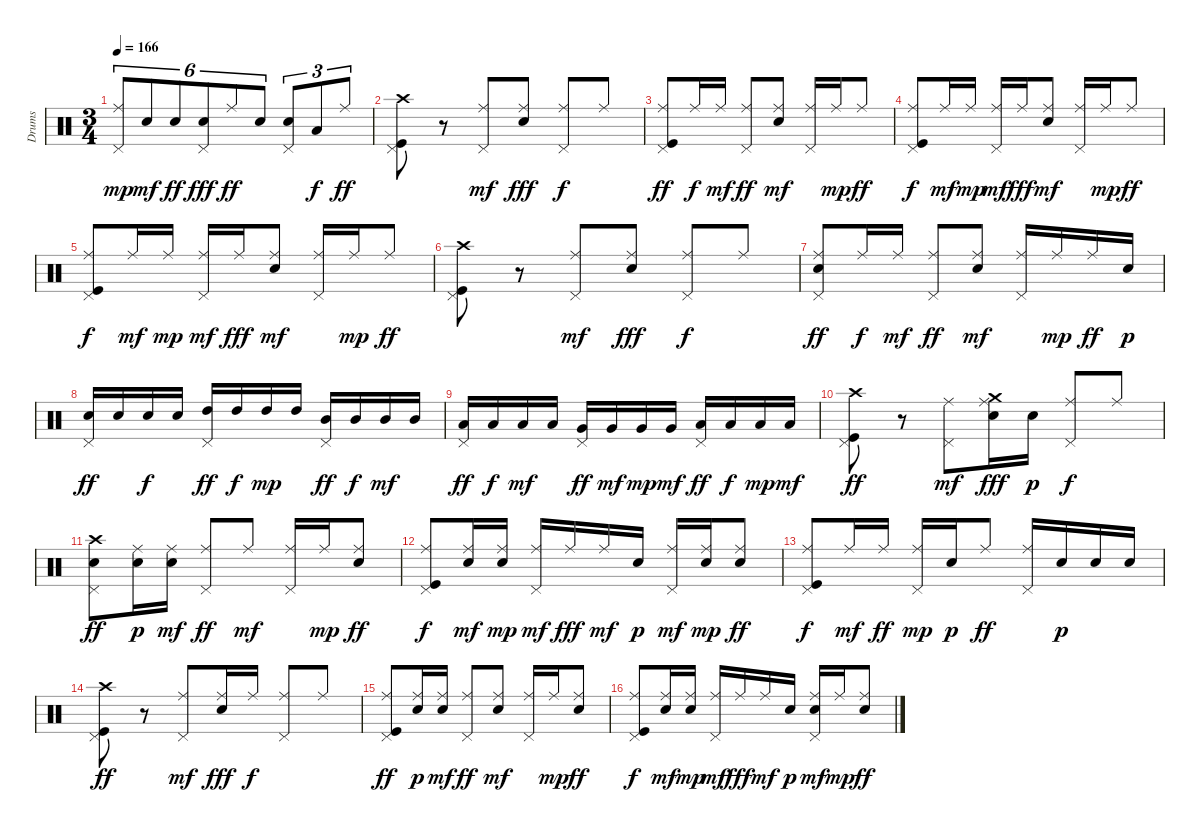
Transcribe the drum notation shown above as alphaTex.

\track ("Drums" "Drums") {instrument percussion}
\staff {score}
\articulation defaults
\ts (3 4)
\tempo 166
\clef neutral
\ks c
("Pedal Hi-Hat (hit)" "Ride (middle)").8{tu (6 4) dy mp} "Electric Snare (hit)".8{tu (6 4) dy mf} "Electric Snare (hit)".8{tu (6 4) dy ff} ("Electric Snare (hit)" "Pedal Hi-Hat (hit)").8{tu (6 4) dy fff} "Ride (middle)".8{tu (6 4) dy ff} "Electric Snare (hit)".8{tu (6 4)} ("Electric Snare (hit)" "Pedal Hi-Hat (hit)").8{tu (3 2)} "Low Tom (hit)".8{tu (3 2) dy f} "Ride (middle)".8{tu (3 2) dy ff} |
("Kick (hit)" "Pedal Hi-Hat (hit)" "Crash high (hit)").8 r.8 ("Pedal Hi-Hat (hit)" "Ride (middle)").8{dy mf} ("Electric Snare (hit)" "Ride (middle)").8{dy fff} ("Pedal Hi-Hat (hit)" "Ride (middle)").8{dy f} "Ride (middle)".8 |
("Kick (hit)" "Pedal Hi-Hat (hit)" "Ride (middle)").8{dy ff} "Ride (middle)".16{dy f} "Ride (middle)".16{dy mf} ("Pedal Hi-Hat (hit)" "Ride (middle)").8{dy ff} ("Electric Snare (hit)" "Ride (middle)").8{dy mf} ("Pedal Hi-Hat (hit)" "Ride (middle)").16 "Ride (middle)".16{dy mp} "Ride (middle)".8{dy ff} |
("Kick (hit)" "Pedal Hi-Hat (hit)" "Ride (middle)").8{dy f} "Ride (middle)".16{dy mf} "Ride (middle)".16{dy mp} ("Pedal Hi-Hat (hit)" "Ride (middle)").16{dy mf} "Ride (middle)".16{dy fff} ("Electric Snare (hit)" "Ride (middle)").8{dy mf} ("Pedal Hi-Hat (hit)" "Ride (middle)").16 "Ride (middle)".16{dy mp} "Ride (middle)".8{dy ff} |
("Kick (hit)" "Pedal Hi-Hat (hit)" "Ride (middle)").8{dy f} "Ride (middle)".16{dy mf} "Ride (middle)".16{dy mp} ("Pedal Hi-Hat (hit)" "Ride (middle)").16{dy mf} "Ride (middle)".16{dy fff} ("Electric Snare (hit)" "Ride (middle)").8{dy mf} ("Pedal Hi-Hat (hit)" "Ride (middle)").16 "Ride (middle)".16{dy mp} "Ride (middle)".8{dy ff} |
("Kick (hit)" "Pedal Hi-Hat (hit)" "Crash high (hit)").8 r.8 ("Pedal Hi-Hat (hit)" "Ride (middle)").8{dy mf} ("Electric Snare (hit)" "Ride (middle)").8{dy fff} ("Pedal Hi-Hat (hit)" "Ride (middle)").8{dy f} "Ride (middle)".8 |
("Electric Snare (hit)" "Pedal Hi-Hat (hit)" "Ride (middle)").8{dy ff} "Ride (middle)".16{dy f} "Ride (middle)".16{dy mf} ("Pedal Hi-Hat (hit)" "Ride (middle)").8{dy ff} ("Electric Snare (hit)" "Ride (middle)").8{dy mf} ("Pedal Hi-Hat (hit)" "Ride (middle)").16 "Ride (middle)".16{dy mp} "Ride (middle)".16{dy ff} "Snare (hit) 2".16{dy p} |
("Electric Snare (hit)" "Pedal Hi-Hat (hit)").16{dy ff} "Electric Snare (hit)".16 "Electric Snare (hit)".16{dy f} "Electric Snare (hit)".16 ("High Tom (hit)" "Pedal Hi-Hat (hit)").16{dy ff} "High Tom (hit)".16{dy f} "High Tom (hit)".16{dy mp} "High Tom (hit)".16 ("Mid Tom (hit)" "Pedal Hi-Hat (hit)").16{dy ff} "Mid Tom (hit)".16{dy f} "Mid Tom (hit)".16{dy mf} "Mid Tom (hit)".16 |
("Low Tom (hit)" "Pedal Hi-Hat (hit)").16{dy ff} "Low Tom (hit)".16{dy f} "Low Tom (hit)".16{dy mf} "Low Tom (hit)".16 ("Very Low Tom (hit)" "Pedal Hi-Hat (hit)").16{dy ff} "Very Low Tom (hit)".16{dy mf} "Very Low Tom (hit)".16{dy mp} "Very Low Tom (hit)".16{dy mf} ("Low Floor Tom (hit)" "Pedal Hi-Hat (hit)").16{dy ff} "Low Floor Tom (hit)".16{dy f} "Low Floor Tom (hit)".16{dy mp} "Low Floor Tom (hit)".16{dy mf} |
("Kick (hit)" "Pedal Hi-Hat (hit)" "Crash high (hit)").8{dy ff} r.8 ("Pedal Hi-Hat (hit)" "Ride (middle)").8{dy mf} ("Electric Snare (hit)" "Crash medium (hit)" "Ride (middle)").16{dy fff} "Snare (hit) 2".16{dy p} ("Pedal Hi-Hat (hit)" "Ride (middle)").8{dy f} "Ride (middle)".8 |
("Electric Snare (hit)" "Pedal Hi-Hat (hit)" "Crash high (hit)").8{dy ff} ("Snare (hit) 2" "Ride (middle)").16{dy p} ("Snare (hit) 2" "Ride (middle)").16{dy mf} ("Pedal Hi-Hat (hit)" "Ride (middle)").8{dy ff} "Ride (middle)".8{dy mf} ("Pedal Hi-Hat (hit)" "Ride (middle)").16 "Ride (middle)".16{dy mp} ("Snare (hit) 2" "Ride (middle)").8{dy ff} |
("Kick (hit)" "Pedal Hi-Hat (hit)" "Ride (middle)").8{dy f} ("Snare (hit) 2" "Ride (middle)").16{dy mf} ("Snare (hit) 2" "Ride (middle)").16{dy mp} ("Pedal Hi-Hat (hit)" "Ride (middle)").16{dy mf} "Ride (middle)".16{dy fff} "Ride (middle)".16{dy mf} "Snare (hit) 2".16{dy p} ("Pedal Hi-Hat (hit)" "Ride (middle)").16{dy mf} ("Snare (hit) 2" "Ride (middle)").16{dy mp} ("Snare (hit) 2" "Ride (middle)").8{dy ff} |
("Kick (hit)" "Pedal Hi-Hat (hit)" "Ride (middle)").8{dy f} "Ride (middle)".16{dy mf} "Ride (middle)".16{dy ff} ("Pedal Hi-Hat (hit)" "Ride (middle)").16{dy mp} "Snare (hit) 2".16{dy p} "Ride (middle)".8{dy ff} ("Pedal Hi-Hat (hit)" "Ride (middle)").16 "Snare (hit) 2".16{dy p} "Snare (hit) 2".16 "Snare (hit) 2".16 |
("Kick (hit)" "Pedal Hi-Hat (hit)" "Crash high (hit)").8{dy ff} r.8 ("Pedal Hi-Hat (hit)" "Ride (middle)").8{dy mf} ("Electric Snare (hit)" "Ride (middle)").16{dy fff} "Ride (middle)".16{dy f} ("Pedal Hi-Hat (hit)" "Ride (middle)").8 "Ride (middle)".8 |
("Kick (hit)" "Pedal Hi-Hat (hit)" "Ride (middle)").8{dy ff} ("Snare (hit) 2" "Ride (middle)").16{dy p} ("Snare (hit) 2" "Ride (middle)").16{dy mf} ("Pedal Hi-Hat (hit)" "Ride (middle)").8{dy ff} ("Electric Snare (hit)" "Ride (middle)").8{dy mf} ("Pedal Hi-Hat (hit)" "Ride (middle)").16 "Ride (middle)".16{dy mp} ("Snare (hit) 2" "Ride (middle)").8{dy ff} |
("Kick (hit)" "Pedal Hi-Hat (hit)" "Ride (middle)").8{dy f} ("Snare (hit) 2" "Ride (middle)").16{dy mf} ("Snare (hit) 2" "Ride (middle)").16{dy mp} ("Pedal Hi-Hat (hit)" "Ride (middle)").16{dy mf} "Ride (middle)".16{dy fff} "Ride (middle)".16{dy mf} "Snare (hit) 2".16{dy p} ("Snare (hit) 2" "Pedal Hi-Hat (hit)" "Ride (middle)").16{dy mf} "Ride (middle)".16{dy mp} ("Snare (hit) 2" "Ride (middle)").8{dy ff}
